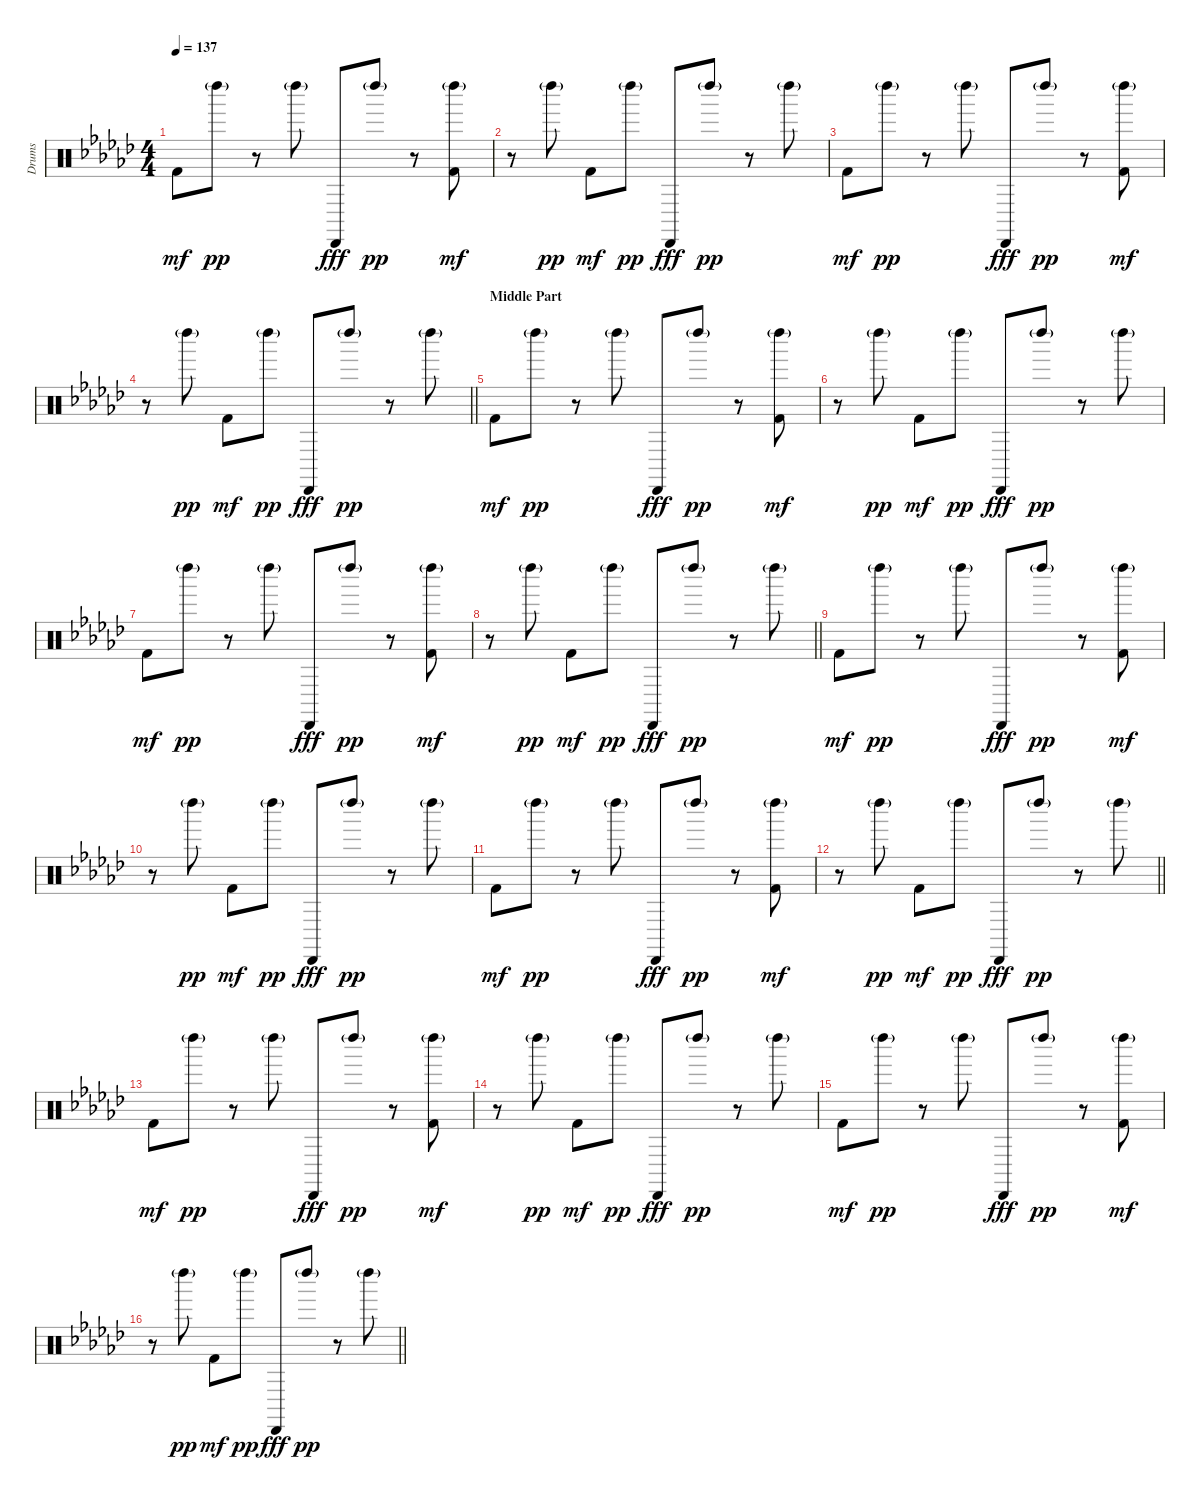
\track ("Drums" "Drums") {instrument percussion}
\staff
\articulation defaults
\ts (4 4)
\tempo 137
\clef neutral
\ks ebminor "Kick (hit) 2".8{dy mf} "Left Maraca (hit)"{g}.8{dy pp}
r.8 "Left Maraca (hit)"{g}.8 "Cabasa (hit)".8{dy fff} "Left Maraca (hit)"{g}.8{dy pp} r.8 ("Left Maraca (hit)"{g} "Kick (hit) 2").8{dy mf} |
r.8 "Left Maraca (hit)"{g}.8{dy pp} "Kick (hit) 2".8{dy mf} "Left Maraca (hit)"{g}.8{dy pp} "Cabasa (hit)".8{dy fff} "Left Maraca (hit)"{g}.8{dy pp} r.8 "Left Maraca (hit)"{g}.8 |
"Kick (hit) 2".8{dy mf} "Left Maraca (hit)"{g}.8{dy pp} r.8 "Left Maraca (hit)"{g}.8 "Cabasa (hit)".8{dy fff} "Left Maraca (hit)"{g}.8{dy pp} r.8 ("Left Maraca (hit)"{g} "Kick (hit) 2").8{dy mf} |
\barLineRight lightlight
r.8 "Left Maraca (hit)"{g}.8{dy pp} "Kick (hit) 2".8{dy mf} "Left Maraca (hit)"{g}.8{dy pp} "Cabasa (hit)".8{dy fff} "Left Maraca (hit)"{g}.8{dy pp} r.8 "Left Maraca (hit)"{g}.8 |
\section ("" "Middle Part")
"Kick (hit) 2".8{dy mf} "Left Maraca (hit)"{g}.8{dy pp} r.8 "Left Maraca (hit)"{g}.8 "Cabasa (hit)".8{dy fff} "Left Maraca (hit)"{g}.8{dy pp} r.8 ("Left Maraca (hit)"{g} "Kick (hit) 2").8{dy mf} |
r.8 "Left Maraca (hit)"{g}.8{dy pp} "Kick (hit) 2".8{dy mf} "Left Maraca (hit)"{g}.8{dy pp} "Cabasa (hit)".8{dy fff} "Left Maraca (hit)"{g}.8{dy pp} r.8 "Left Maraca (hit)"{g}.8 |
"Kick (hit) 2".8{dy mf} "Left Maraca (hit)"{g}.8{dy pp} r.8 "Left Maraca (hit)"{g}.8 "Cabasa (hit)".8{dy fff} "Left Maraca (hit)"{g}.8{dy pp} r.8 ("Left Maraca (hit)"{g} "Kick (hit) 2").8{dy mf} |
\barLineRight lightlight
r.8 "Left Maraca (hit)"{g}.8{dy pp} "Kick (hit) 2".8{dy mf} "Left Maraca (hit)"{g}.8{dy pp} "Cabasa (hit)".8{dy fff} "Left Maraca (hit)"{g}.8{dy pp} r.8 "Left Maraca (hit)"{g}.8 |
"Kick (hit) 2".8{dy mf} "Left Maraca (hit)"{g}.8{dy pp} r.8 "Left Maraca (hit)"{g}.8 "Cabasa (hit)".8{dy fff} "Left Maraca (hit)"{g}.8{dy pp} r.8 ("Left Maraca (hit)"{g} "Kick (hit) 2").8{dy mf} |
r.8 "Left Maraca (hit)"{g}.8{dy pp} "Kick (hit) 2".8{dy mf} "Left Maraca (hit)"{g}.8{dy pp} "Cabasa (hit)".8{dy fff} "Left Maraca (hit)"{g}.8{dy pp} r.8 "Left Maraca (hit)"{g}.8 |
"Kick (hit) 2".8{dy mf} "Left Maraca (hit)"{g}.8{dy pp} r.8 "Left Maraca (hit)"{g}.8 "Cabasa (hit)".8{dy fff} "Left Maraca (hit)"{g}.8{dy pp} r.8 ("Left Maraca (hit)"{g} "Kick (hit) 2").8{dy mf} |
\barLineRight lightlight
r.8 "Left Maraca (hit)"{g}.8{dy pp} "Kick (hit) 2".8{dy mf} "Left Maraca (hit)"{g}.8{dy pp} "Cabasa (hit)".8{dy fff} "Left Maraca (hit)"{g}.8{dy pp} r.8 "Left Maraca (hit)"{g}.8 |
"Kick (hit) 2".8{dy mf} "Left Maraca (hit)"{g}.8{dy pp} r.8 "Left Maraca (hit)"{g}.8 "Cabasa (hit)".8{dy fff} "Left Maraca (hit)"{g}.8{dy pp} r.8 ("Left Maraca (hit)"{g} "Kick (hit) 2").8{dy mf} |
r.8 "Left Maraca (hit)"{g}.8{dy pp} "Kick (hit) 2".8{dy mf} "Left Maraca (hit)"{g}.8{dy pp} "Cabasa (hit)".8{dy fff} "Left Maraca (hit)"{g}.8{dy pp} r.8 "Left Maraca (hit)"{g}.8 |
"Kick (hit) 2".8{dy mf} "Left Maraca (hit)"{g}.8{dy pp} r.8 "Left Maraca (hit)"{g}.8 "Cabasa (hit)".8{dy fff} "Left Maraca (hit)"{g}.8{dy pp} r.8 ("Left Maraca (hit)"{g} "Kick (hit) 2").8{dy mf} |
\barLineRight lightlight
r.8 "Left Maraca (hit)"{g}.8{dy pp} "Kick (hit) 2".8{dy mf} "Left Maraca (hit)"{g}.8{dy pp} "Cabasa (hit)".8{dy fff} "Left Maraca (hit)"{g}.8{dy pp} r.8 "Left Maraca (hit)"{g}.8
